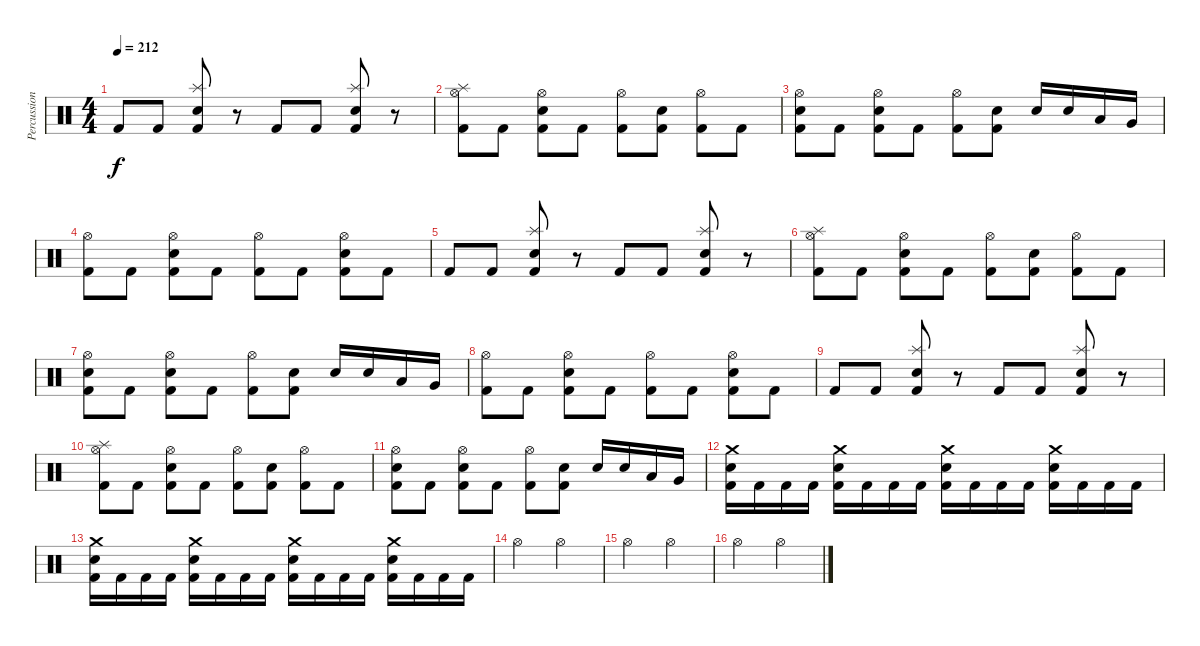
\track ("Percussions" "Percussion") {instrument percussion}
\staff {score}
\articulation defaults
\ts (4 4)
\tempo 212
\clef neutral
\ks c "Kick (hit) 2".8{dy f} "Kick (hit) 2".8
("Splash (hit)" "Snare (hit) 2" "Kick (hit) 2").8 r.8 "Kick (hit) 2".8 "Kick (hit) 2".8 ("Splash (hit)" "Snare (hit) 2" "Kick (hit) 2").8 r.8 |
("Hi-Hat (open)" "Splash (hit)" "Kick (hit) 2").8 "Kick (hit) 2".8 ("Hi-Hat (open)" "Snare (hit) 2" "Kick (hit) 2").8 "Kick (hit) 2".8 ("Hi-Hat (open)" "Kick (hit) 2").8 ("Snare (hit) 2" "Kick (hit) 2").8 ("Hi-Hat (open)" "Kick (hit) 2").8 "Kick (hit) 2".8 |
("Hi-Hat (open)" "Snare (hit) 2" "Kick (hit) 2").8 "Kick (hit) 2".8 ("Hi-Hat (open)" "Snare (hit) 2" "Kick (hit) 2").8 "Kick (hit) 2".8 ("Hi-Hat (open)" "Kick (hit) 2").8 ("Snare (hit) 2" "Kick (hit) 2").8 "Snare (hit) 2".16 "Snare (hit) 2".16 "Low Tom (hit)".16 "Very Low Tom (hit)".16 |
("Hi-Hat (open)" "Kick (hit) 2").8 "Kick (hit) 2".8 ("Hi-Hat (open)" "Snare (hit) 2" "Kick (hit) 2").8 "Kick (hit) 2".8 ("Hi-Hat (open)" "Kick (hit) 2").8 "Kick (hit) 2".8 ("Hi-Hat (open)" "Snare (hit) 2" "Kick (hit) 2").8 "Kick (hit) 2".8 |
"Kick (hit) 2".8 "Kick (hit) 2".8 ("Splash (hit)" "Snare (hit) 2" "Kick (hit) 2").8 r.8 "Kick (hit) 2".8 "Kick (hit) 2".8 ("Splash (hit)" "Snare (hit) 2" "Kick (hit) 2").8 r.8 |
("Hi-Hat (open)" "Splash (hit)" "Kick (hit) 2").8 "Kick (hit) 2".8 ("Hi-Hat (open)" "Snare (hit) 2" "Kick (hit) 2").8 "Kick (hit) 2".8 ("Hi-Hat (open)" "Kick (hit) 2").8 ("Snare (hit) 2" "Kick (hit) 2").8 ("Hi-Hat (open)" "Kick (hit) 2").8 "Kick (hit) 2".8 |
("Hi-Hat (open)" "Snare (hit) 2" "Kick (hit) 2").8 "Kick (hit) 2".8 ("Hi-Hat (open)" "Snare (hit) 2" "Kick (hit) 2").8 "Kick (hit) 2".8 ("Hi-Hat (open)" "Kick (hit) 2").8 ("Snare (hit) 2" "Kick (hit) 2").8 "Snare (hit) 2".16 "Snare (hit) 2".16 "Low Tom (hit)".16 "Very Low Tom (hit)".16 |
("Hi-Hat (open)" "Kick (hit) 2").8 "Kick (hit) 2".8 ("Hi-Hat (open)" "Snare (hit) 2" "Kick (hit) 2").8 "Kick (hit) 2".8 ("Hi-Hat (open)" "Kick (hit) 2").8 "Kick (hit) 2".8 ("Hi-Hat (open)" "Snare (hit) 2" "Kick (hit) 2").8 "Kick (hit) 2".8 |
"Kick (hit) 2".8 "Kick (hit) 2".8 ("Splash (hit)" "Snare (hit) 2" "Kick (hit) 2").8 r.8 "Kick (hit) 2".8 "Kick (hit) 2".8 ("Splash (hit)" "Snare (hit) 2" "Kick (hit) 2").8 r.8 |
("Hi-Hat (open)" "Splash (hit)" "Kick (hit) 2").8 "Kick (hit) 2".8 ("Hi-Hat (open)" "Snare (hit) 2" "Kick (hit) 2").8 "Kick (hit) 2".8 ("Hi-Hat (open)" "Kick (hit) 2").8 ("Snare (hit) 2" "Kick (hit) 2").8 ("Hi-Hat (open)" "Kick (hit) 2").8 "Kick (hit) 2".8 |
("Hi-Hat (open)" "Snare (hit) 2" "Kick (hit) 2").8 "Kick (hit) 2".8 ("Hi-Hat (open)" "Snare (hit) 2" "Kick (hit) 2").8 "Kick (hit) 2".8 ("Hi-Hat (open)" "Kick (hit) 2").8 ("Snare (hit) 2" "Kick (hit) 2").8 "Snare (hit) 2".16 "Snare (hit) 2".16 "Low Tom (hit)".16 "Very Low Tom (hit)".16 |
("Crash medium (hit)" "Snare (hit) 2" "Kick (hit) 2").16 "Kick (hit) 2".16 "Kick (hit) 2".16 "Kick (hit) 2".16 ("Crash medium (hit)" "Snare (hit) 2" "Kick (hit) 2").16 "Kick (hit) 2".16 "Kick (hit) 2".16 "Kick (hit) 2".16 ("Crash medium (hit)" "Snare (hit) 2" "Kick (hit) 2").16 "Kick (hit) 2".16 "Kick (hit) 2".16 "Kick (hit) 2".16 ("Crash medium (hit)" "Snare (hit) 2" "Kick (hit) 2").16 "Kick (hit) 2".16 "Kick (hit) 2".16 "Kick (hit) 2".16 |
("Crash medium (hit)" "Snare (hit) 2" "Kick (hit) 2").16 "Kick (hit) 2".16 "Kick (hit) 2".16 "Kick (hit) 2".16 ("Crash medium (hit)" "Snare (hit) 2" "Kick (hit) 2").16 "Kick (hit) 2".16 "Kick (hit) 2".16 "Kick (hit) 2".16 ("Crash medium (hit)" "Snare (hit) 2" "Kick (hit) 2").16 "Kick (hit) 2".16 "Kick (hit) 2".16 "Kick (hit) 2".16 ("Crash medium (hit)" "Snare (hit) 2" "Kick (hit) 2").16 "Kick (hit) 2".16 "Kick (hit) 2".16 "Kick (hit) 2".16 |
"Hi-Hat (open)".2 "Hi-Hat (open)".2 |
"Hi-Hat (open)".2 "Hi-Hat (open)".2 |
"Hi-Hat (open)".2 "Hi-Hat (open)".2
